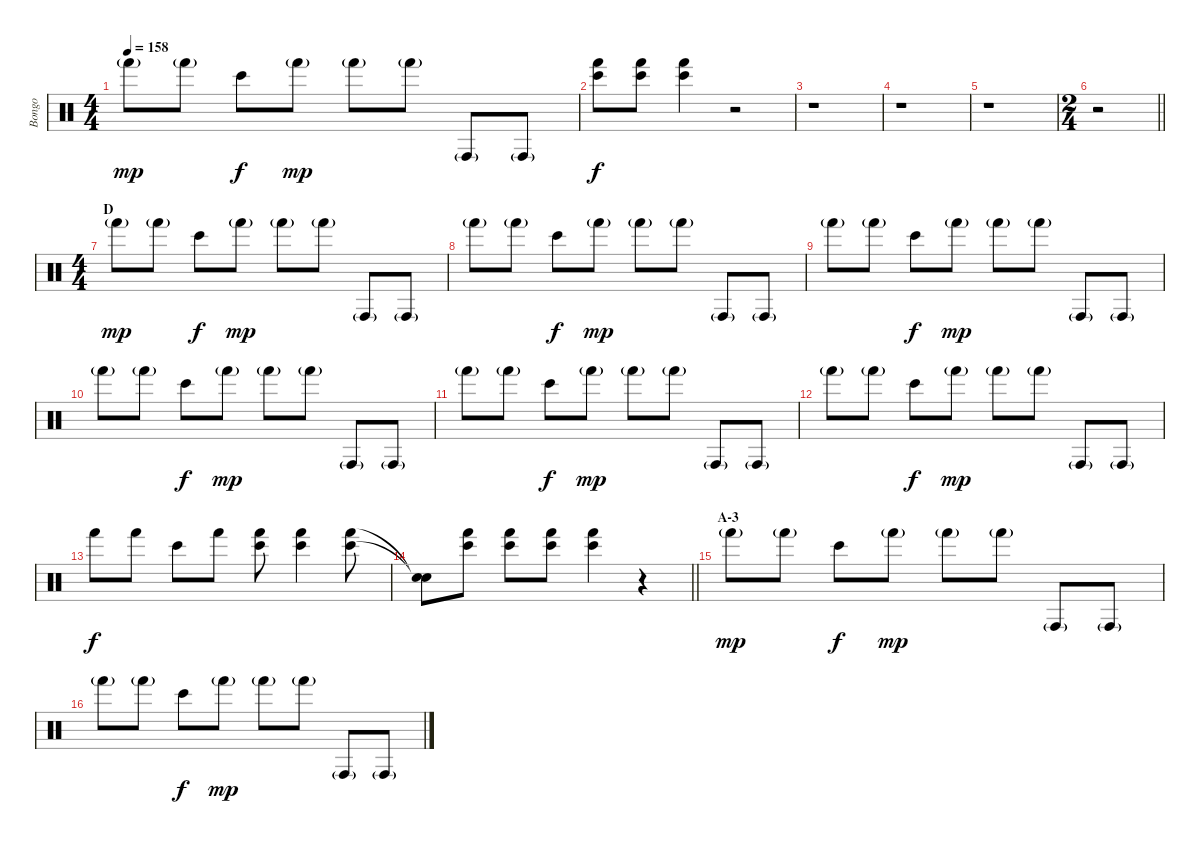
\track ("Bongo" "Bongo") {instrument percussion}
\staff {score}
\articulation defaults
\ts (4 4)
\tempo 158
\clef neutral
\ks c "Hand (hit)"{g}.8{dy mp} "Hand (hit)"{g}.8 "Bongo High (hit)".8{dy f} "Hand (hit)"{g}.8{dy mp} "Hand (hit)"{g}.8 "Hand (hit)"{g}.8 "Conga high (hit)"{g}.8 "Conga high (hit)"{g}.8
|
("Bongo High (hit)" "Hand (hit)").8{dy f} ("Bongo High (hit)" "Hand (hit)").8 ("Bongo High (hit)" "Hand (hit)").4 r.2 |
r.1 |
r.1 |
r.1 |
\ts (2 4)
\barLineRight lightlight
r.2 |
\ts (4 4)
\section ("" "D")
"Hand (hit)"{g}.8{dy mp} "Hand (hit)"{g}.8 "Bongo High (hit)".8{dy f} "Hand (hit)"{g}.8{dy mp} "Hand (hit)"{g}.8 "Hand (hit)"{g}.8 "Conga high (hit)"{g}.8 "Conga high (hit)"{g}.8 |
"Hand (hit)"{g}.8 "Hand (hit)"{g}.8 "Bongo High (hit)".8{dy f} "Hand (hit)"{g}.8{dy mp} "Hand (hit)"{g}.8 "Hand (hit)"{g}.8 "Conga high (hit)"{g}.8 "Conga high (hit)"{g}.8 |
"Hand (hit)"{g}.8 "Hand (hit)"{g}.8 "Bongo High (hit)".8{dy f} "Hand (hit)"{g}.8{dy mp} "Hand (hit)"{g}.8 "Hand (hit)"{g}.8 "Conga high (hit)"{g}.8 "Conga high (hit)"{g}.8 |
"Hand (hit)"{g}.8 "Hand (hit)"{g}.8 "Bongo High (hit)".8{dy f} "Hand (hit)"{g}.8{dy mp} "Hand (hit)"{g}.8 "Hand (hit)"{g}.8 "Conga high (hit)"{g}.8 "Conga high (hit)"{g}.8 |
"Hand (hit)"{g}.8 "Hand (hit)"{g}.8 "Bongo High (hit)".8{dy f} "Hand (hit)"{g}.8{dy mp} "Hand (hit)"{g}.8 "Hand (hit)"{g}.8 "Conga high (hit)"{g}.8 "Conga high (hit)"{g}.8 |
"Hand (hit)"{g}.8 "Hand (hit)"{g}.8 "Bongo High (hit)".8{dy f} "Hand (hit)"{g}.8{dy mp} "Hand (hit)"{g}.8 "Hand (hit)"{g}.8 "Conga high (hit)"{g}.8 "Conga high (hit)"{g}.8 |
"Hand (hit)".8{dy f} "Hand (hit)".8 "Bongo High (hit)".8 "Hand (hit)".8 ("Bongo High (hit)" "Hand (hit)").8 ("Bongo High (hit)" "Hand (hit)").4 ("Bongo High (hit)" "Hand (hit)").8 |
\barLineRight lightlight
("Snare (hit)"{t} "Snare (hit)"{t}).8 ("Bongo High (hit)" "Hand (hit)").8 ("Bongo High (hit)" "Hand (hit)").8 ("Bongo High (hit)" "Hand (hit)").8 ("Bongo High (hit)" "Hand (hit)").4 r.4 |
\section ("" "A-3")
"Hand (hit)"{g}.8{dy mp} "Hand (hit)"{g}.8 "Bongo High (hit)".8{dy f} "Hand (hit)"{g}.8{dy mp} "Hand (hit)"{g}.8 "Hand (hit)"{g}.8 "Conga high (hit)"{g}.8 "Conga high (hit)"{g}.8 |
"Hand (hit)"{g}.8 "Hand (hit)"{g}.8 "Bongo High (hit)".8{dy f} "Hand (hit)"{g}.8{dy mp} "Hand (hit)"{g}.8 "Hand (hit)"{g}.8 "Conga high (hit)"{g}.8 "Conga high (hit)"{g}.8
